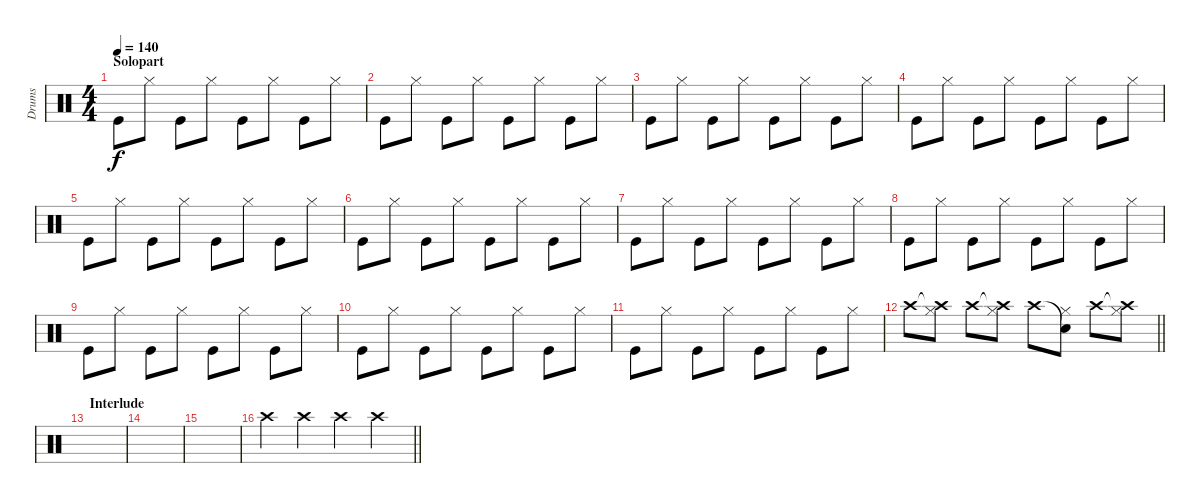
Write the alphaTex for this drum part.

\track ("Drums" "Drums") {instrument percussion}
\staff {score}
\articulation defaults
\ts (4 4)
\section ("" "Solopart")
\tempo 140
\clef neutral
\ks c "Kick (hit)".8{dy f} "Hi-Hat (closed)".8 "Kick (hit)".8 "Hi-Hat (closed)".8 "Kick (hit)".8 "Hi-Hat (closed)".8 "Kick (hit)".8 "Hi-Hat (closed)".8
|
"Kick (hit)".8 "Hi-Hat (closed)".8 "Kick (hit)".8 "Hi-Hat (closed)".8 "Kick (hit)".8 "Hi-Hat (closed)".8 "Kick (hit)".8 "Hi-Hat (closed)".8 |
"Kick (hit)".8 "Hi-Hat (closed)".8 "Kick (hit)".8 "Hi-Hat (closed)".8 "Kick (hit)".8 "Hi-Hat (closed)".8 "Kick (hit)".8 "Hi-Hat (closed)".8 |
"Kick (hit)".8 "Hi-Hat (closed)".8 "Kick (hit)".8 "Hi-Hat (closed)".8 "Kick (hit)".8 "Hi-Hat (closed)".8 "Kick (hit)".8 "Hi-Hat (closed)".8 |
"Kick (hit)".8 "Hi-Hat (closed)".8 "Kick (hit)".8 "Hi-Hat (closed)".8 "Kick (hit)".8 "Hi-Hat (closed)".8 "Kick (hit)".8 "Hi-Hat (closed)".8 |
"Kick (hit)".8 "Hi-Hat (closed)".8 "Kick (hit)".8 "Hi-Hat (closed)".8 "Kick (hit)".8 "Hi-Hat (closed)".8 "Kick (hit)".8 "Hi-Hat (closed)".8 |
"Kick (hit)".8 "Hi-Hat (closed)".8 "Kick (hit)".8 "Hi-Hat (closed)".8 "Kick (hit)".8 "Hi-Hat (closed)".8 "Kick (hit)".8 "Hi-Hat (closed)".8 |
"Kick (hit)".8 "Hi-Hat (closed)".8 "Kick (hit)".8 "Hi-Hat (closed)".8 "Kick (hit)".8 "Hi-Hat (closed)".8 "Kick (hit)".8 "Hi-Hat (closed)".8 |
"Kick (hit)".8 "Hi-Hat (closed)".8 "Kick (hit)".8 "Hi-Hat (closed)".8 "Kick (hit)".8 "Hi-Hat (closed)".8 "Kick (hit)".8 "Hi-Hat (closed)".8 |
"Kick (hit)".8 "Hi-Hat (closed)".8 "Kick (hit)".8 "Hi-Hat (closed)".8 "Kick (hit)".8 "Hi-Hat (closed)".8 "Kick (hit)".8 "Hi-Hat (closed)".8 |
"Kick (hit)".8 "Hi-Hat (closed)".8 "Kick (hit)".8 "Hi-Hat (closed)".8 "Kick (hit)".8 "Hi-Hat (closed)".8 "Kick (hit)".8 "Hi-Hat (closed)".8 |
\barLineRight lightlight "Crash high (hit)".8
("Crash high (hit)"{t} "Hi-Hat (closed)").8 "Crash high (hit)".8 ("Crash high (hit)"{t} "Hi-Hat (closed)").8 "Crash high (hit)".8 ("Snare (hit)"{t} "Hi-Hat (closed)").8 "Crash high (hit)".8 ("Crash high (hit)"{t} "Hi-Hat (closed)").8 |
\section ("" "Interlude")
|
|
|
\barLineRight lightlight "Crash high (hit)".4 "Crash high (hit)".4 "Crash high (hit)".4 "Crash high (hit)".4
